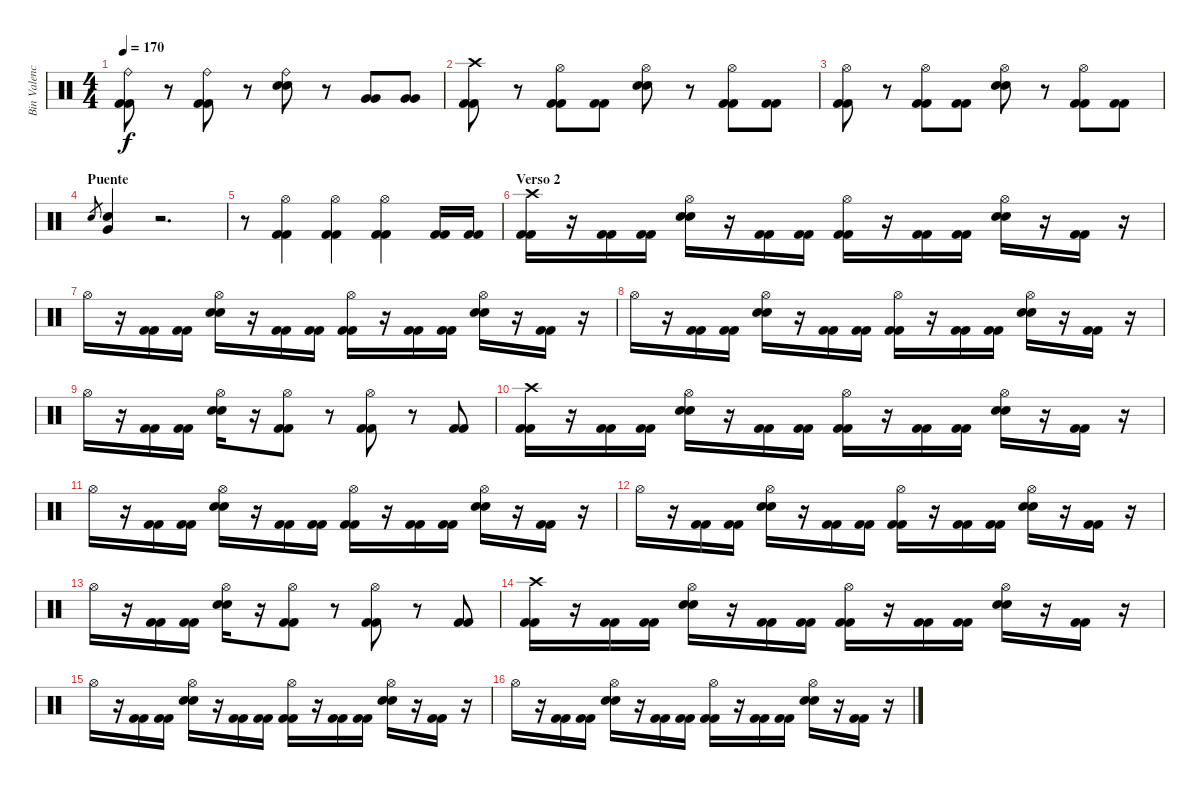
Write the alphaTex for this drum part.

\track ("Bin Valencia (Bateria)" "Bin Valenc") {instrument percussion}
\staff {score}
\articulation defaults
\ts (4 4)
\tempo 170
\clef neutral
\ks c
("Ride (bell)" "Kick (hit) 2" "Kick (hit) 2").8{dy f} r.8 ("Ride (bell)" "Kick (hit) 2" "Kick (hit) 2").8 r.8 ("Ride (bell)" "Snare (hit) 2" "Snare (hit) 2").8 r.8 ("Very Low Tom (hit)" "Very Low Tom (hit)").8 ("Very Low Tom (hit)" "Very Low Tom (hit)").8 |
("Crash high (hit)" "Kick (hit) 2" "Kick (hit) 2").8 r.8 ("Hi-Hat (open)" "Kick (hit) 2" "Kick (hit) 2").8 ("Kick (hit) 2" "Kick (hit) 2").8 ("Hi-Hat (open)" "Snare (hit) 2" "Snare (hit) 2").8 r.8 ("Hi-Hat (open)" "Kick (hit) 2" "Kick (hit) 2").8 ("Kick (hit) 2" "Kick (hit) 2").8 |
("Hi-Hat (open)" "Kick (hit) 2" "Kick (hit) 2").8 r.8 ("Hi-Hat (open)" "Kick (hit) 2" "Kick (hit) 2").8 ("Kick (hit) 2" "Kick (hit) 2").8 ("Hi-Hat (open)" "Snare (hit) 2" "Snare (hit) 2").8 r.8 ("Hi-Hat (open)" "Kick (hit) 2" "Kick (hit) 2").8 ("Kick (hit) 2" "Kick (hit) 2").8 |
\section ("" "Puente")
"Snare (hit) 2".8{gr} ("Snare (hit) 2" "Very Low Tom (hit)").4 r.2{d} |
r.8 ("Hi-Hat (open)" "Kick (hit) 2" "Kick (hit) 2").4 ("Hi-Hat (open)" "Kick (hit) 2" "Kick (hit) 2").4 ("Hi-Hat (open)" "Kick (hit) 2" "Kick (hit) 2").4 ("Kick (hit) 2" "Kick (hit) 2").16 ("Kick (hit) 2" "Kick (hit) 2").16 |
\section ("" "Verso 2")
("Crash high (hit)" "Kick (hit) 2" "Kick (hit) 2").16 r.16 ("Kick (hit) 2" "Kick (hit) 2").16 ("Kick (hit) 2" "Kick (hit) 2").16 ("Hi-Hat (open)" "Snare (hit) 2" "Snare (hit) 2").16 r.16 ("Kick (hit) 2" "Kick (hit) 2").16 ("Kick (hit) 2" "Kick (hit) 2").16 ("Hi-Hat (open)" "Kick (hit) 2" "Kick (hit) 2").16 r.16 ("Kick (hit) 2" "Kick (hit) 2").16 ("Kick (hit) 2" "Kick (hit) 2").16 ("Hi-Hat (open)" "Snare (hit) 2" "Snare (hit) 2").16 r.16 ("Kick (hit) 2" "Kick (hit) 2").16 r.16 |
"Hi-Hat (open)".16 r.16 ("Kick (hit) 2" "Kick (hit) 2").16 ("Kick (hit) 2" "Kick (hit) 2").16 ("Hi-Hat (open)" "Snare (hit) 2" "Snare (hit) 2").16 r.16 ("Kick (hit) 2" "Kick (hit) 2").16 ("Kick (hit) 2" "Kick (hit) 2").16 ("Hi-Hat (open)" "Kick (hit) 2" "Kick (hit) 2").16 r.16 ("Kick (hit) 2" "Kick (hit) 2").16 ("Kick (hit) 2" "Kick (hit) 2").16 ("Hi-Hat (open)" "Snare (hit) 2" "Snare (hit) 2").16 r.16 ("Kick (hit) 2" "Kick (hit) 2").16 r.16 |
"Hi-Hat (open)".16 r.16 ("Kick (hit) 2" "Kick (hit) 2").16 ("Kick (hit) 2" "Kick (hit) 2").16 ("Hi-Hat (open)" "Snare (hit) 2" "Snare (hit) 2").16 r.16 ("Kick (hit) 2" "Kick (hit) 2").16 ("Kick (hit) 2" "Kick (hit) 2").16 ("Hi-Hat (open)" "Kick (hit) 2" "Kick (hit) 2").16 r.16 ("Kick (hit) 2" "Kick (hit) 2").16 ("Kick (hit) 2" "Kick (hit) 2").16 ("Hi-Hat (open)" "Snare (hit) 2" "Snare (hit) 2").16 r.16 ("Kick (hit) 2" "Kick (hit) 2").16 r.16 |
"Hi-Hat (open)".16 r.16 ("Kick (hit) 2" "Kick (hit) 2").16 ("Kick (hit) 2" "Kick (hit) 2").16 ("Hi-Hat (open)" "Snare (hit) 2" "Snare (hit) 2").16 r.16 ("Hi-Hat (open)" "Kick (hit) 2" "Kick (hit) 2").8 r.8 ("Hi-Hat (open)" "Kick (hit) 2" "Kick (hit) 2").8 r.8 ("Kick (hit) 2" "Kick (hit) 2").8 |
("Crash high (hit)" "Kick (hit) 2" "Kick (hit) 2").16 r.16 ("Kick (hit) 2" "Kick (hit) 2").16 ("Kick (hit) 2" "Kick (hit) 2").16 ("Hi-Hat (open)" "Snare (hit) 2" "Snare (hit) 2").16 r.16 ("Kick (hit) 2" "Kick (hit) 2").16 ("Kick (hit) 2" "Kick (hit) 2").16 ("Hi-Hat (open)" "Kick (hit) 2" "Kick (hit) 2").16 r.16 ("Kick (hit) 2" "Kick (hit) 2").16 ("Kick (hit) 2" "Kick (hit) 2").16 ("Hi-Hat (open)" "Snare (hit) 2" "Snare (hit) 2").16 r.16 ("Kick (hit) 2" "Kick (hit) 2").16 r.16 |
"Hi-Hat (open)".16 r.16 ("Kick (hit) 2" "Kick (hit) 2").16 ("Kick (hit) 2" "Kick (hit) 2").16 ("Hi-Hat (open)" "Snare (hit) 2" "Snare (hit) 2").16 r.16 ("Kick (hit) 2" "Kick (hit) 2").16 ("Kick (hit) 2" "Kick (hit) 2").16 ("Hi-Hat (open)" "Kick (hit) 2" "Kick (hit) 2").16 r.16 ("Kick (hit) 2" "Kick (hit) 2").16 ("Kick (hit) 2" "Kick (hit) 2").16 ("Hi-Hat (open)" "Snare (hit) 2" "Snare (hit) 2").16 r.16 ("Kick (hit) 2" "Kick (hit) 2").16 r.16 |
"Hi-Hat (open)".16 r.16 ("Kick (hit) 2" "Kick (hit) 2").16 ("Kick (hit) 2" "Kick (hit) 2").16 ("Hi-Hat (open)" "Snare (hit) 2" "Snare (hit) 2").16 r.16 ("Kick (hit) 2" "Kick (hit) 2").16 ("Kick (hit) 2" "Kick (hit) 2").16 ("Hi-Hat (open)" "Kick (hit) 2" "Kick (hit) 2").16 r.16 ("Kick (hit) 2" "Kick (hit) 2").16 ("Kick (hit) 2" "Kick (hit) 2").16 ("Hi-Hat (open)" "Snare (hit) 2" "Snare (hit) 2").16 r.16 ("Kick (hit) 2" "Kick (hit) 2").16 r.16 |
"Hi-Hat (open)".16 r.16 ("Kick (hit) 2" "Kick (hit) 2").16 ("Kick (hit) 2" "Kick (hit) 2").16 ("Hi-Hat (open)" "Snare (hit) 2" "Snare (hit) 2").16 r.16 ("Hi-Hat (open)" "Kick (hit) 2" "Kick (hit) 2").8 r.8 ("Hi-Hat (open)" "Kick (hit) 2" "Kick (hit) 2").8 r.8 ("Kick (hit) 2" "Kick (hit) 2").8 |
("Crash high (hit)" "Kick (hit) 2" "Kick (hit) 2").16 r.16 ("Kick (hit) 2" "Kick (hit) 2").16 ("Kick (hit) 2" "Kick (hit) 2").16 ("Hi-Hat (open)" "Snare (hit) 2" "Snare (hit) 2").16 r.16 ("Kick (hit) 2" "Kick (hit) 2").16 ("Kick (hit) 2" "Kick (hit) 2").16 ("Hi-Hat (open)" "Kick (hit) 2" "Kick (hit) 2").16 r.16 ("Kick (hit) 2" "Kick (hit) 2").16 ("Kick (hit) 2" "Kick (hit) 2").16 ("Hi-Hat (open)" "Snare (hit) 2" "Snare (hit) 2").16 r.16 ("Kick (hit) 2" "Kick (hit) 2").16 r.16 |
"Hi-Hat (open)".16 r.16 ("Kick (hit) 2" "Kick (hit) 2").16 ("Kick (hit) 2" "Kick (hit) 2").16 ("Hi-Hat (open)" "Snare (hit) 2" "Snare (hit) 2").16 r.16 ("Kick (hit) 2" "Kick (hit) 2").16 ("Kick (hit) 2" "Kick (hit) 2").16 ("Hi-Hat (open)" "Kick (hit) 2" "Kick (hit) 2").16 r.16 ("Kick (hit) 2" "Kick (hit) 2").16 ("Kick (hit) 2" "Kick (hit) 2").16 ("Hi-Hat (open)" "Snare (hit) 2" "Snare (hit) 2").16 r.16 ("Kick (hit) 2" "Kick (hit) 2").16 r.16 |
"Hi-Hat (open)".16 r.16 ("Kick (hit) 2" "Kick (hit) 2").16 ("Kick (hit) 2" "Kick (hit) 2").16 ("Hi-Hat (open)" "Snare (hit) 2" "Snare (hit) 2").16 r.16 ("Kick (hit) 2" "Kick (hit) 2").16 ("Kick (hit) 2" "Kick (hit) 2").16 ("Hi-Hat (open)" "Kick (hit) 2" "Kick (hit) 2").16 r.16 ("Kick (hit) 2" "Kick (hit) 2").16 ("Kick (hit) 2" "Kick (hit) 2").16 ("Hi-Hat (open)" "Snare (hit) 2" "Snare (hit) 2").16 r.16 ("Kick (hit) 2" "Kick (hit) 2").16 r.16
